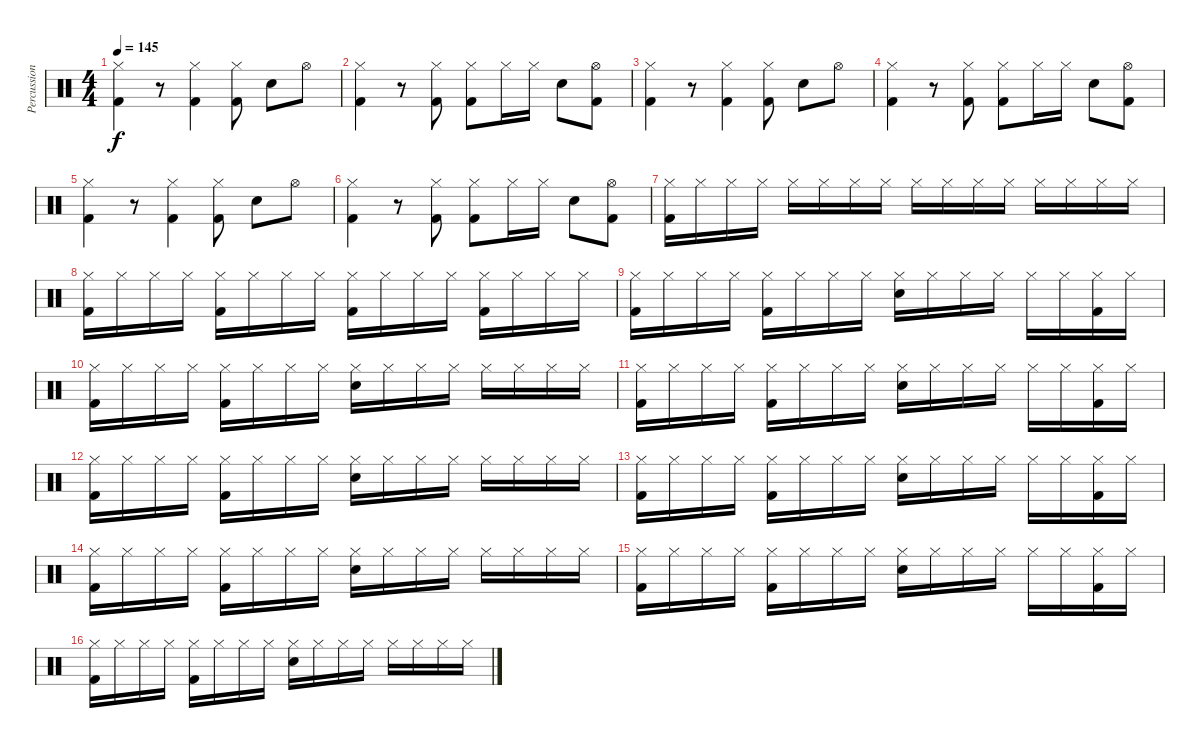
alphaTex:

\track ("Percussion" "Percussion") {instrument percussion}
\staff {score}
\articulation defaults
\ts (4 4)
\tempo 145
\clef neutral
\ks c
("Hi-Hat (closed)" "Kick (hit) 2").4{dy f} r.8 ("Hi-Hat (closed)" "Kick (hit) 2").4 ("Hi-Hat (closed)" "Kick (hit) 2").8 "Hand Clap (hit)".8 "Hi-Hat (open)".8 |
("Hi-Hat (closed)" "Kick (hit) 2").4 r.8 ("Hi-Hat (closed)" "Kick (hit) 2").8 ("Hi-Hat (closed)" "Kick (hit) 2").8 "Hi-Hat (closed)".16 "Hi-Hat (closed)".16 "Hand Clap (hit)".8 ("Hi-Hat (open)" "Kick (hit) 2").8 |
("Hi-Hat (closed)" "Kick (hit) 2").4 r.8 ("Hi-Hat (closed)" "Kick (hit) 2").4 ("Hi-Hat (closed)" "Kick (hit) 2").8 "Hand Clap (hit)".8 "Hi-Hat (open)".8 |
("Hi-Hat (closed)" "Kick (hit) 2").4 r.8 ("Hi-Hat (closed)" "Kick (hit) 2").8 ("Hi-Hat (closed)" "Kick (hit) 2").8 "Hi-Hat (closed)".16 "Hi-Hat (closed)".16 "Hand Clap (hit)".8 ("Hi-Hat (open)" "Kick (hit) 2").8 |
("Hi-Hat (closed)" "Kick (hit) 2").4 r.8 ("Hi-Hat (closed)" "Kick (hit) 2").4 ("Hi-Hat (closed)" "Kick (hit) 2").8 "Hand Clap (hit)".8 "Hi-Hat (open)".8 |
("Hi-Hat (closed)" "Kick (hit) 2").4 r.8 ("Hi-Hat (closed)" "Kick (hit) 2").8 ("Hi-Hat (closed)" "Kick (hit) 2").8 "Hi-Hat (closed)".16 "Hi-Hat (closed)".16 "Hand Clap (hit)".8 ("Hi-Hat (open)" "Kick (hit) 2").8 |
("Hi-Hat (closed)" "Kick (hit) 2").16 "Hi-Hat (closed)".16 "Hi-Hat (closed)".16 "Hi-Hat (closed)".16 "Hi-Hat (closed)".16 "Hi-Hat (closed)".16 "Hi-Hat (closed)".16 "Hi-Hat (closed)".16 "Hi-Hat (closed)".16 "Hi-Hat (closed)".16 "Hi-Hat (closed)".16 "Hi-Hat (closed)".16 "Hi-Hat (closed)".16 "Hi-Hat (closed)".16 "Hi-Hat (closed)".16 "Hi-Hat (closed)".16 |
("Hi-Hat (closed)" "Kick (hit) 2").16 "Hi-Hat (closed)".16 "Hi-Hat (closed)".16 "Hi-Hat (closed)".16 ("Hi-Hat (closed)" "Kick (hit) 2").16 "Hi-Hat (closed)".16 "Hi-Hat (closed)".16 "Hi-Hat (closed)".16 ("Hi-Hat (closed)" "Kick (hit) 2").16 "Hi-Hat (closed)".16 "Hi-Hat (closed)".16 "Hi-Hat (closed)".16 ("Hi-Hat (closed)" "Kick (hit) 2").16 "Hi-Hat (closed)".16 "Hi-Hat (closed)".16 "Hi-Hat (closed)".16 |
("Hi-Hat (closed)" "Kick (hit) 2").16 "Hi-Hat (closed)".16 "Hi-Hat (closed)".16 "Hi-Hat (closed)".16 ("Hi-Hat (closed)" "Kick (hit) 2").16 "Hi-Hat (closed)".16 "Hi-Hat (closed)".16 "Hi-Hat (closed)".16 ("Hi-Hat (closed)" "Hand Clap (hit)").16 "Hi-Hat (closed)".16 "Hi-Hat (closed)".16 "Hi-Hat (closed)".16 "Hi-Hat (closed)".16 "Hi-Hat (closed)".16 ("Hi-Hat (closed)" "Kick (hit) 2").16 "Hi-Hat (closed)".16 |
("Hi-Hat (closed)" "Kick (hit) 2").16 "Hi-Hat (closed)".16 "Hi-Hat (closed)".16 "Hi-Hat (closed)".16 ("Hi-Hat (closed)" "Kick (hit) 2").16 "Hi-Hat (closed)".16 "Hi-Hat (closed)".16 "Hi-Hat (closed)".16 ("Hi-Hat (closed)" "Hand Clap (hit)").16 "Hi-Hat (closed)".16 "Hi-Hat (closed)".16 "Hi-Hat (closed)".16 "Hi-Hat (closed)".16 "Hi-Hat (closed)".16 "Hi-Hat (closed)".16 "Hi-Hat (closed)".16 |
("Hi-Hat (closed)" "Kick (hit) 2").16 "Hi-Hat (closed)".16 "Hi-Hat (closed)".16 "Hi-Hat (closed)".16 ("Hi-Hat (closed)" "Kick (hit) 2").16 "Hi-Hat (closed)".16 "Hi-Hat (closed)".16 "Hi-Hat (closed)".16 ("Hi-Hat (closed)" "Hand Clap (hit)").16 "Hi-Hat (closed)".16 "Hi-Hat (closed)".16 "Hi-Hat (closed)".16 "Hi-Hat (closed)".16 "Hi-Hat (closed)".16 ("Hi-Hat (closed)" "Kick (hit) 2").16 "Hi-Hat (closed)".16 |
("Hi-Hat (closed)" "Kick (hit) 2").16 "Hi-Hat (closed)".16 "Hi-Hat (closed)".16 "Hi-Hat (closed)".16 ("Hi-Hat (closed)" "Kick (hit) 2").16 "Hi-Hat (closed)".16 "Hi-Hat (closed)".16 "Hi-Hat (closed)".16 ("Hi-Hat (closed)" "Hand Clap (hit)").16 "Hi-Hat (closed)".16 "Hi-Hat (closed)".16 "Hi-Hat (closed)".16 "Hi-Hat (closed)".16 "Hi-Hat (closed)".16 "Hi-Hat (closed)".16 "Hi-Hat (closed)".16 |
("Hi-Hat (closed)" "Kick (hit) 2").16 "Hi-Hat (closed)".16 "Hi-Hat (closed)".16 "Hi-Hat (closed)".16 ("Hi-Hat (closed)" "Kick (hit) 2").16 "Hi-Hat (closed)".16 "Hi-Hat (closed)".16 "Hi-Hat (closed)".16 ("Hi-Hat (closed)" "Hand Clap (hit)").16 "Hi-Hat (closed)".16 "Hi-Hat (closed)".16 "Hi-Hat (closed)".16 "Hi-Hat (closed)".16 "Hi-Hat (closed)".16 ("Hi-Hat (closed)" "Kick (hit) 2").16 "Hi-Hat (closed)".16 |
("Hi-Hat (closed)" "Kick (hit) 2").16 "Hi-Hat (closed)".16 "Hi-Hat (closed)".16 "Hi-Hat (closed)".16 ("Hi-Hat (closed)" "Kick (hit) 2").16 "Hi-Hat (closed)".16 "Hi-Hat (closed)".16 "Hi-Hat (closed)".16 ("Hi-Hat (closed)" "Hand Clap (hit)").16 "Hi-Hat (closed)".16 "Hi-Hat (closed)".16 "Hi-Hat (closed)".16 "Hi-Hat (closed)".16 "Hi-Hat (closed)".16 "Hi-Hat (closed)".16 "Hi-Hat (closed)".16 |
("Hi-Hat (closed)" "Kick (hit) 2").16 "Hi-Hat (closed)".16 "Hi-Hat (closed)".16 "Hi-Hat (closed)".16 ("Hi-Hat (closed)" "Kick (hit) 2").16 "Hi-Hat (closed)".16 "Hi-Hat (closed)".16 "Hi-Hat (closed)".16 ("Hi-Hat (closed)" "Hand Clap (hit)").16 "Hi-Hat (closed)".16 "Hi-Hat (closed)".16 "Hi-Hat (closed)".16 "Hi-Hat (closed)".16 "Hi-Hat (closed)".16 ("Hi-Hat (closed)" "Kick (hit) 2").16 "Hi-Hat (closed)".16 |
("Hi-Hat (closed)" "Kick (hit) 2").16 "Hi-Hat (closed)".16 "Hi-Hat (closed)".16 "Hi-Hat (closed)".16 ("Hi-Hat (closed)" "Kick (hit) 2").16 "Hi-Hat (closed)".16 "Hi-Hat (closed)".16 "Hi-Hat (closed)".16 ("Hi-Hat (closed)" "Hand Clap (hit)").16 "Hi-Hat (closed)".16 "Hi-Hat (closed)".16 "Hi-Hat (closed)".16 "Hi-Hat (closed)".16 "Hi-Hat (closed)".16 "Hi-Hat (closed)".16 "Hi-Hat (closed)".16
